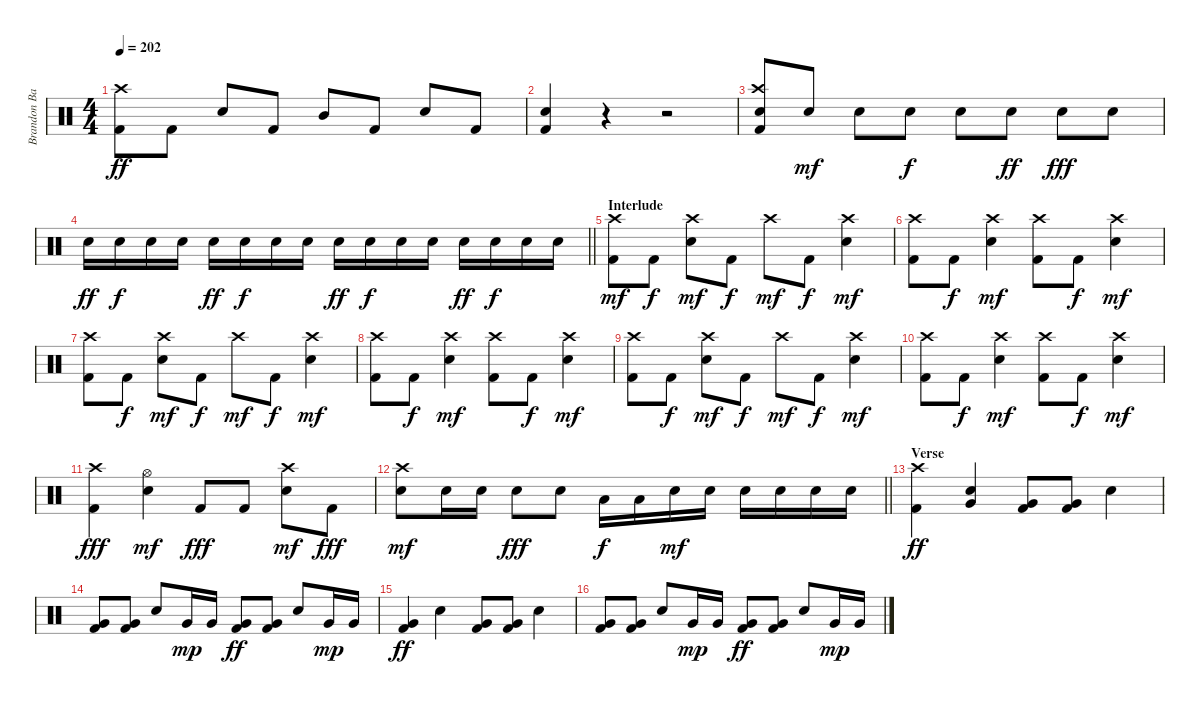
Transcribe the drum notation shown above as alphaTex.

\track ("Brandon Barnes - Drums" "Brandon Ba") {instrument percussion}
\staff {score}
\articulation defaults
\ts (4 4)
\tempo 202
\clef neutral
\ks c
("Kick (hit) 2" "Crash high (hit)").8{dy ff} "Kick (hit) 2".8 "Snare (hit) 2".8 "Kick (hit) 2".8 "Mid Tom (hit)".8 "Kick (hit) 2".8 "Snare (hit) 2".8 "Kick (hit) 2".8 |
("Kick (hit) 2" "Snare (hit) 2").4 r.4 r.2 |
("Crash high (hit)" "Kick (hit) 2" "Snare (hit) 2").8 "Snare (hit) 2".8{dy mf} "Snare (hit) 2".8 "Snare (hit) 2".8{dy f} "Snare (hit) 2".8 "Snare (hit) 2".8{dy ff} "Snare (hit) 2".8{dy fff} "Snare (hit) 2".8 |
\barLineRight lightlight "Snare (hit) 2".16{dy ff} "Snare (hit) 2".16{dy f} "Snare (hit) 2".16 "Snare (hit) 2".16 "Snare (hit) 2".16{dy ff} "Snare (hit) 2".16{dy f} "Snare (hit) 2".16 "Snare (hit) 2".16 "Snare (hit) 2".16{dy ff} "Snare (hit) 2".16{dy f} "Snare (hit) 2".16 "Snare (hit) 2".16 "Snare (hit) 2".16{dy ff} "Snare (hit) 2".16{dy f} "Snare (hit) 2".16 "Snare (hit) 2".16
|
\section ("" "Interlude")
("Kick (hit) 2" "Crash high (hit)").8{dy mf} "Kick (hit) 2".8{dy f} ("Snare (hit) 2" "Crash high (hit)").8{dy mf} "Kick (hit) 2".8{dy f} "Crash high (hit)".8{dy mf} "Kick (hit) 2".8{dy f} ("Snare (hit) 2" "Crash high (hit)").4{dy mf} |
("Kick (hit) 2" "Crash high (hit)").8 "Kick (hit) 2".8{dy f} ("Snare (hit) 2" "Crash high (hit)").4{dy mf} ("Kick (hit) 2" "Crash high (hit)").8 "Kick (hit) 2".8{dy f} ("Snare (hit) 2" "Crash high (hit)").4{dy mf} |
("Kick (hit) 2" "Crash high (hit)").8 "Kick (hit) 2".8{dy f} ("Snare (hit) 2" "Crash high (hit)").8{dy mf} "Kick (hit) 2".8{dy f} "Crash high (hit)".8{dy mf} "Kick (hit) 2".8{dy f} ("Snare (hit) 2" "Crash high (hit)").4{dy mf} |
("Kick (hit) 2" "Crash high (hit)").8 "Kick (hit) 2".8{dy f} ("Snare (hit) 2" "Crash high (hit)").4{dy mf} ("Kick (hit) 2" "Crash high (hit)").8 "Kick (hit) 2".8{dy f} ("Snare (hit) 2" "Crash high (hit)").4{dy mf} |
("Kick (hit) 2" "Crash high (hit)").8 "Kick (hit) 2".8{dy f} ("Snare (hit) 2" "Crash high (hit)").8{dy mf} "Kick (hit) 2".8{dy f} "Crash high (hit)".8{dy mf} "Kick (hit) 2".8{dy f} ("Snare (hit) 2" "Crash high (hit)").4{dy mf} |
("Kick (hit) 2" "Crash high (hit)").8 "Kick (hit) 2".8{dy f} ("Snare (hit) 2" "Crash high (hit)").4{dy mf} ("Kick (hit) 2" "Crash high (hit)").8 "Kick (hit) 2".8{dy f} ("Snare (hit) 2" "Crash high (hit)").4{dy mf} |
("Crash high (hit)" "Kick (hit) 2").4{dy fff} ("Snare (hit) 2" "Hi-Hat (open)").4{dy mf} "Kick (hit) 2".8{dy fff} "Kick (hit) 2".8 ("Snare (hit) 2" "Crash high (hit)").8{dy mf} "Kick (hit) 2".8{dy fff} |
\barLineRight lightlight
("Snare (hit) 2" "Crash high (hit)").8{dy mf} "Snare (hit) 2".16 "Snare (hit) 2".16 "Snare (hit) 2".8{dy fff} "Snare (hit) 2".8 "Low Tom (hit)".16{dy f} "Low Tom (hit)".16 "Snare (hit) 2".16{dy mf} "Snare (hit) 2".16 "Snare (hit) 2".16 "Snare (hit) 2".16 "Snare (hit) 2".16 "Snare (hit) 2".16 |
\section ("" "Verse")
("Crash high (hit)" "Kick (hit) 2").4{dy ff} ("Snare (hit) 2" "Very Low Tom (hit)").4 ("Kick (hit) 2" "Very Low Tom (hit)").8 ("Kick (hit) 2" "Very Low Tom (hit)").8 "Snare (hit) 2".4 |
("Kick (hit) 2" "Very Low Tom (hit)").8 ("Kick (hit) 2" "Very Low Tom (hit)").8 "Snare (hit) 2".8 "Very Low Tom (hit)".16{dy mp} "Very Low Tom (hit)".16 ("Kick (hit) 2" "Very Low Tom (hit)").8{dy ff} ("Kick (hit) 2" "Very Low Tom (hit)").8 "Snare (hit) 2".8 "Very Low Tom (hit)".16{dy mp} "Very Low Tom (hit)".16 |
("Kick (hit) 2" "Very Low Tom (hit)").4{dy ff} "Snare (hit) 2".4 ("Kick (hit) 2" "Very Low Tom (hit)").8 ("Kick (hit) 2" "Very Low Tom (hit)").8 "Snare (hit) 2".4 |
("Kick (hit) 2" "Very Low Tom (hit)").8 ("Kick (hit) 2" "Very Low Tom (hit)").8 "Snare (hit) 2".8 "Very Low Tom (hit)".16{dy mp} "Very Low Tom (hit)".16 ("Kick (hit) 2" "Very Low Tom (hit)").8{dy ff} ("Kick (hit) 2" "Very Low Tom (hit)").8 "Snare (hit) 2".8 "Very Low Tom (hit)".16{dy mp} "Very Low Tom (hit)".16
